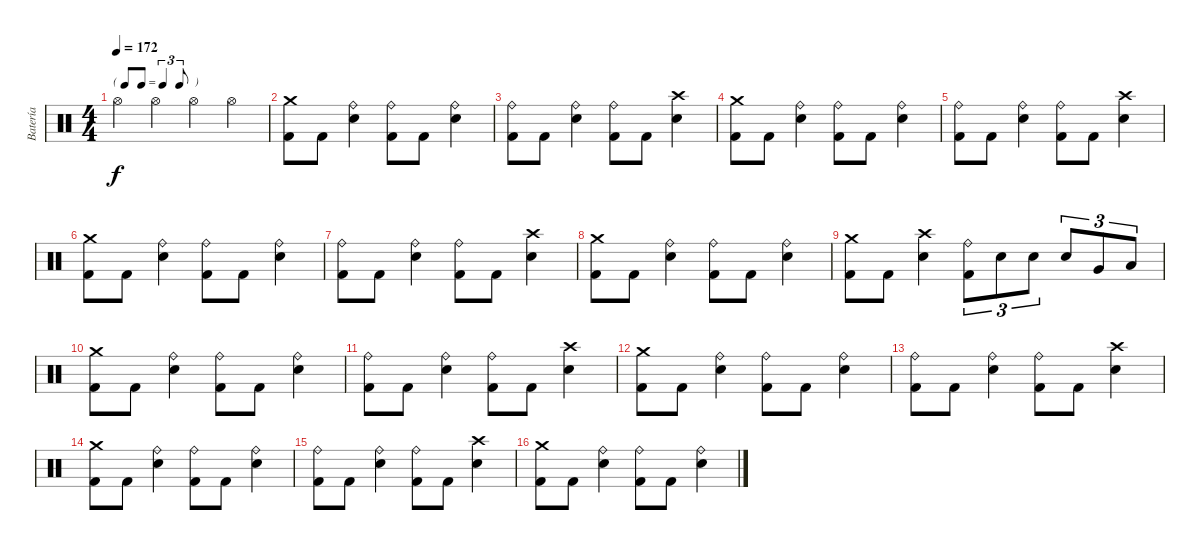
\track ("Batería" "Batería") {instrument percussion}
\staff {score}
\articulation defaults
\ts (4 4)
\tf triplet8th
\tempo 172
\clef neutral
\ks c "Hi-Hat (open)".4{dy f} "Hi-Hat (open)".4 "Hi-Hat (open)".4 "Hi-Hat (open)".4
|
("Kick (hit) 2" "Crash medium (hit)").8 "Kick (hit) 2".8 ("Electric Snare (hit)" "Ride (bell)").4 ("Kick (hit) 2" "Ride (bell)").8 "Kick (hit) 2".8 ("Electric Snare (hit)" "Ride (bell)").4 |
("Kick (hit) 2" "Ride (bell)").8 "Kick (hit) 2".8 ("Electric Snare (hit)" "Ride (bell)").4 ("Kick (hit) 2" "Ride (bell)").8 "Kick (hit) 2".8 ("Electric Snare (hit)" "Crash high (hit)").4 |
("Kick (hit) 2" "Crash medium (hit)").8 "Kick (hit) 2".8 ("Electric Snare (hit)" "Ride (bell)").4 ("Kick (hit) 2" "Ride (bell)").8 "Kick (hit) 2".8 ("Electric Snare (hit)" "Ride (bell)").4 |
("Kick (hit) 2" "Ride (bell)").8 "Kick (hit) 2".8 ("Electric Snare (hit)" "Ride (bell)").4 ("Kick (hit) 2" "Ride (bell)").8 "Kick (hit) 2".8 ("Electric Snare (hit)" "Crash high (hit)").4 |
("Kick (hit) 2" "Crash medium (hit)").8 "Kick (hit) 2".8 ("Electric Snare (hit)" "Ride (bell)").4 ("Kick (hit) 2" "Ride (bell)").8 "Kick (hit) 2".8 ("Electric Snare (hit)" "Ride (bell)").4 |
("Kick (hit) 2" "Ride (bell)").8 "Kick (hit) 2".8 ("Electric Snare (hit)" "Ride (bell)").4 ("Kick (hit) 2" "Ride (bell)").8 "Kick (hit) 2".8 ("Electric Snare (hit)" "Crash high (hit)").4 |
("Kick (hit) 2" "Crash medium (hit)").8 "Kick (hit) 2".8 ("Electric Snare (hit)" "Ride (bell)").4 ("Kick (hit) 2" "Ride (bell)").8 "Kick (hit) 2".8 ("Electric Snare (hit)" "Ride (bell)").4 |
("Kick (hit) 2" "Crash medium (hit)").8 "Kick (hit) 2".8 ("Electric Snare (hit)" "Crash high (hit)").4 ("Kick (hit) 2" "Ride (bell)").8{tu (3 2)} "Electric Snare (hit)".8{tu (3 2)} "Electric Snare (hit)".8{tu (3 2)} "Electric Snare (hit)".8{tu (3 2)} "Very Low Tom (hit)".8{tu (3 2)} "Low Floor Tom (hit)".8{tu (3 2)} |
("Kick (hit) 2" "Crash medium (hit)").8 "Kick (hit) 2".8 ("Electric Snare (hit)" "Ride (bell)").4 ("Kick (hit) 2" "Ride (bell)").8 "Kick (hit) 2".8 ("Electric Snare (hit)" "Ride (bell)").4 |
("Kick (hit) 2" "Ride (bell)").8 "Kick (hit) 2".8 ("Electric Snare (hit)" "Ride (bell)").4 ("Kick (hit) 2" "Ride (bell)").8 "Kick (hit) 2".8 ("Electric Snare (hit)" "Crash high (hit)").4 |
("Kick (hit) 2" "Crash medium (hit)").8 "Kick (hit) 2".8 ("Electric Snare (hit)" "Ride (bell)").4 ("Kick (hit) 2" "Ride (bell)").8 "Kick (hit) 2".8 ("Electric Snare (hit)" "Ride (bell)").4 |
("Kick (hit) 2" "Ride (bell)").8 "Kick (hit) 2".8 ("Electric Snare (hit)" "Ride (bell)").4 ("Kick (hit) 2" "Ride (bell)").8 "Kick (hit) 2".8 ("Electric Snare (hit)" "Crash high (hit)").4 |
("Kick (hit) 2" "Crash medium (hit)").8 "Kick (hit) 2".8 ("Electric Snare (hit)" "Ride (bell)").4 ("Kick (hit) 2" "Ride (bell)").8 "Kick (hit) 2".8 ("Electric Snare (hit)" "Ride (bell)").4 |
("Kick (hit) 2" "Ride (bell)").8 "Kick (hit) 2".8 ("Electric Snare (hit)" "Ride (bell)").4 ("Kick (hit) 2" "Ride (bell)").8 "Kick (hit) 2".8 ("Electric Snare (hit)" "Crash high (hit)").4 |
("Kick (hit) 2" "Crash medium (hit)").8 "Kick (hit) 2".8 ("Electric Snare (hit)" "Ride (bell)").4 ("Kick (hit) 2" "Ride (bell)").8 "Kick (hit) 2".8 ("Electric Snare (hit)" "Ride (bell)").4
